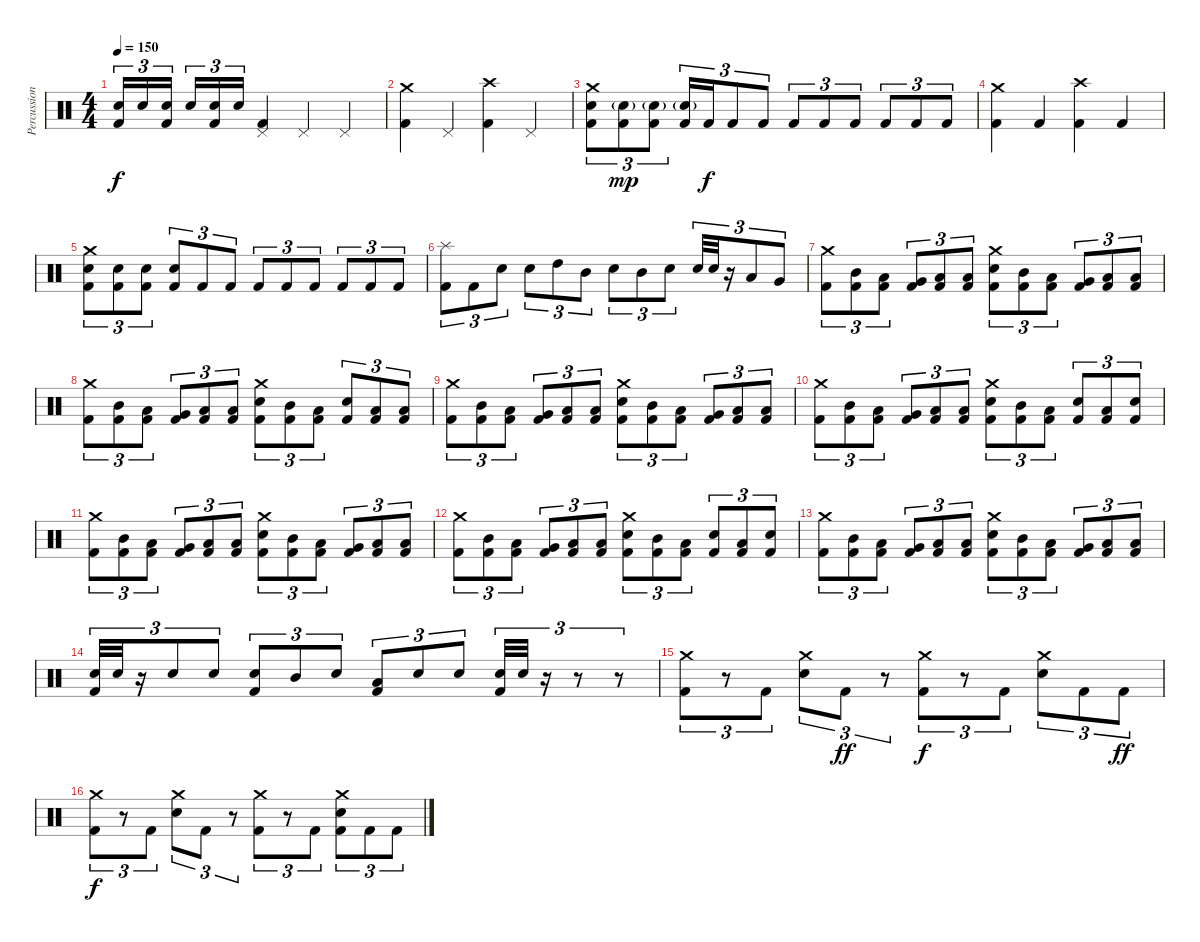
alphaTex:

\track ("Percussion" "Percussion") {instrument percussion}
\staff {score}
\articulation defaults
\ts (4 4)
\tempo 150
\clef neutral
\ks c
("Electric Snare (hit)" "Kick (hit) 2").16{tu (3 2) dy f} "Electric Snare (hit)".16{tu (3 2)} ("Electric Snare (hit)" "Kick (hit) 2").16{tu (3 2) beam splitsecondary} "Electric Snare (hit)".16{tu (3 2)} ("Electric Snare (hit)" "Kick (hit) 2").16{tu (3 2)} "Electric Snare (hit)".16{tu (3 2)} ("Pedal Hi-Hat (hit)" "Kick (hit) 2").4 "Pedal Hi-Hat (hit)".4 "Pedal Hi-Hat (hit)".4 |
("Crash medium (hit)" "Kick (hit) 2").4 "Pedal Hi-Hat (hit)".4 ("Crash high (hit)" "Kick (hit) 2").4 "Pedal Hi-Hat (hit)".4 |
("Crash medium (hit)" "Electric Snare (hit)" "Kick (hit) 2").8{tu (3 2)} ("Electric Snare (hit)"{g} "Kick (hit) 2").8{tu (3 2) dy mp} ("Electric Snare (hit)"{g} "Kick (hit) 2").8{tu (3 2)} ("Electric Snare (hit)"{g} "Kick (hit) 2").16{tu (3 2)} "Kick (hit) 2".16{tu (3 2) dy f} "Kick (hit) 2".8{tu (3 2)} "Kick (hit) 2".8{tu (3 2)} "Kick (hit) 2".8{tu (3 2)} "Kick (hit) 2".8{tu (3 2)} "Kick (hit) 2".8{tu (3 2)} "Kick (hit) 2".8{tu (3 2)} "Kick (hit) 2".8{tu (3 2)} "Kick (hit) 2".8{tu (3 2)} |
("Crash medium (hit)" "Kick (hit) 2").4 "Kick (hit) 2".4 ("Crash high (hit)" "Kick (hit) 2").4 "Kick (hit) 2".4 |
("Crash medium (hit)" "Electric Snare (hit)" "Kick (hit) 2").8{tu (3 2)} ("Electric Snare (hit)" "Kick (hit) 2").8{tu (3 2)} ("Electric Snare (hit)" "Kick (hit) 2").8{tu (3 2)} ("Electric Snare (hit)" "Kick (hit) 2").8{tu (3 2)} "Kick (hit) 2".8{tu (3 2)} "Kick (hit) 2".8{tu (3 2)} "Kick (hit) 2".8{tu (3 2)} "Kick (hit) 2".8{tu (3 2)} "Kick (hit) 2".8{tu (3 2)} "Kick (hit) 2".8{tu (3 2)} "Kick (hit) 2".8{tu (3 2)} "Kick (hit) 2".8{tu (3 2)} |
("Splash (hit)" "Kick (hit) 2").8{tu (3 2)} "Kick (hit) 2".8{tu (3 2)} "Electric Snare (hit)".8{tu (3 2)} "Electric Snare (hit)".8{tu (3 2)} "High Tom (hit)".8{tu (3 2)} "Mid Tom (hit)".8{tu (3 2)} "Electric Snare (hit)".8{tu (3 2)} "Mid Tom (hit)".8{tu (3 2)} "Electric Snare (hit)".8{tu (3 2)} "Electric Snare (hit)".32{tu (3 2)} "Electric Snare (hit)".32{tu (3 2)} r.16{tu (3 2)} "Low Tom (hit)".8{tu (3 2)} "Very Low Tom (hit)".8{tu (3 2)} |
("Crash medium (hit)" "Kick (hit) 2").8{tu (3 2)} ("Mid Tom (hit)" "Kick (hit) 2").8{tu (3 2)} ("Low Tom (hit)" "Kick (hit) 2").8{tu (3 2)} ("Very Low Tom (hit)" "Kick (hit) 2").8{tu (3 2)} ("Low Tom (hit)" "Kick (hit) 2").8{tu (3 2)} ("Low Tom (hit)" "Kick (hit) 2").8{tu (3 2)} ("Crash medium (hit)" "Electric Snare (hit)" "Kick (hit) 2").8{tu (3 2)} ("Mid Tom (hit)" "Kick (hit) 2").8{tu (3 2)} ("Low Tom (hit)" "Kick (hit) 2").8{tu (3 2)} ("Very Low Tom (hit)" "Kick (hit) 2").8{tu (3 2)} ("Low Tom (hit)" "Kick (hit) 2").8{tu (3 2)} ("Low Tom (hit)" "Kick (hit) 2").8{tu (3 2)} |
("Crash medium (hit)" "Kick (hit) 2").8{tu (3 2)} ("Mid Tom (hit)" "Kick (hit) 2").8{tu (3 2)} ("Low Tom (hit)" "Kick (hit) 2").8{tu (3 2)} ("Very Low Tom (hit)" "Kick (hit) 2").8{tu (3 2)} ("Low Tom (hit)" "Kick (hit) 2").8{tu (3 2)} ("Low Tom (hit)" "Kick (hit) 2").8{tu (3 2)} ("Crash medium (hit)" "Electric Snare (hit)" "Kick (hit) 2").8{tu (3 2)} ("Mid Tom (hit)" "Kick (hit) 2").8{tu (3 2)} ("Low Tom (hit)" "Kick (hit) 2").8{tu (3 2)} ("Electric Snare (hit)" "Kick (hit) 2").8{tu (3 2)} ("Low Tom (hit)" "Kick (hit) 2").8{tu (3 2)} ("Low Tom (hit)" "Kick (hit) 2").8{tu (3 2)} |
("Crash medium (hit)" "Kick (hit) 2").8{tu (3 2)} ("Mid Tom (hit)" "Kick (hit) 2").8{tu (3 2)} ("Low Tom (hit)" "Kick (hit) 2").8{tu (3 2)} ("Very Low Tom (hit)" "Kick (hit) 2").8{tu (3 2)} ("Low Tom (hit)" "Kick (hit) 2").8{tu (3 2)} ("Low Tom (hit)" "Kick (hit) 2").8{tu (3 2)} ("Crash medium (hit)" "Electric Snare (hit)" "Kick (hit) 2").8{tu (3 2)} ("Mid Tom (hit)" "Kick (hit) 2").8{tu (3 2)} ("Low Tom (hit)" "Kick (hit) 2").8{tu (3 2)} ("Very Low Tom (hit)" "Kick (hit) 2").8{tu (3 2)} ("Low Tom (hit)" "Kick (hit) 2").8{tu (3 2)} ("Low Tom (hit)" "Kick (hit) 2").8{tu (3 2)} |
("Crash medium (hit)" "Kick (hit) 2").8{tu (3 2)} ("Mid Tom (hit)" "Kick (hit) 2").8{tu (3 2)} ("Low Tom (hit)" "Kick (hit) 2").8{tu (3 2)} ("Very Low Tom (hit)" "Kick (hit) 2").8{tu (3 2)} ("Low Tom (hit)" "Kick (hit) 2").8{tu (3 2)} ("Low Tom (hit)" "Kick (hit) 2").8{tu (3 2)} ("Crash medium (hit)" "Electric Snare (hit)" "Kick (hit) 2").8{tu (3 2)} ("Mid Tom (hit)" "Kick (hit) 2").8{tu (3 2)} ("Low Tom (hit)" "Kick (hit) 2").8{tu (3 2)} ("Electric Snare (hit)" "Kick (hit) 2").8{tu (3 2)} ("Low Tom (hit)" "Kick (hit) 2").8{tu (3 2)} ("Electric Snare (hit)" "Kick (hit) 2").8{tu (3 2)} |
("Crash medium (hit)" "Kick (hit) 2").8{tu (3 2)} ("Mid Tom (hit)" "Kick (hit) 2").8{tu (3 2)} ("Low Tom (hit)" "Kick (hit) 2").8{tu (3 2)} ("Very Low Tom (hit)" "Kick (hit) 2").8{tu (3 2)} ("Low Tom (hit)" "Kick (hit) 2").8{tu (3 2)} ("Low Tom (hit)" "Kick (hit) 2").8{tu (3 2)} ("Crash medium (hit)" "Electric Snare (hit)" "Kick (hit) 2").8{tu (3 2)} ("Mid Tom (hit)" "Kick (hit) 2").8{tu (3 2)} ("Low Tom (hit)" "Kick (hit) 2").8{tu (3 2)} ("Very Low Tom (hit)" "Kick (hit) 2").8{tu (3 2)} ("Low Tom (hit)" "Kick (hit) 2").8{tu (3 2)} ("Low Tom (hit)" "Kick (hit) 2").8{tu (3 2)} |
("Crash medium (hit)" "Kick (hit) 2").8{tu (3 2)} ("Mid Tom (hit)" "Kick (hit) 2").8{tu (3 2)} ("Low Tom (hit)" "Kick (hit) 2").8{tu (3 2)} ("Very Low Tom (hit)" "Kick (hit) 2").8{tu (3 2)} ("Low Tom (hit)" "Kick (hit) 2").8{tu (3 2)} ("Low Tom (hit)" "Kick (hit) 2").8{tu (3 2)} ("Crash medium (hit)" "Electric Snare (hit)" "Kick (hit) 2").8{tu (3 2)} ("Mid Tom (hit)" "Kick (hit) 2").8{tu (3 2)} ("Low Tom (hit)" "Kick (hit) 2").8{tu (3 2)} ("Electric Snare (hit)" "Kick (hit) 2").8{tu (3 2)} ("Low Tom (hit)" "Kick (hit) 2").8{tu (3 2)} ("Electric Snare (hit)" "Kick (hit) 2").8{tu (3 2)} |
("Crash medium (hit)" "Kick (hit) 2").8{tu (3 2)} ("Mid Tom (hit)" "Kick (hit) 2").8{tu (3 2)} ("Low Tom (hit)" "Kick (hit) 2").8{tu (3 2)} ("Very Low Tom (hit)" "Kick (hit) 2").8{tu (3 2)} ("Low Tom (hit)" "Kick (hit) 2").8{tu (3 2)} ("Low Tom (hit)" "Kick (hit) 2").8{tu (3 2)} ("Crash medium (hit)" "Electric Snare (hit)" "Kick (hit) 2").8{tu (3 2)} ("Mid Tom (hit)" "Kick (hit) 2").8{tu (3 2)} ("Low Tom (hit)" "Kick (hit) 2").8{tu (3 2)} ("Very Low Tom (hit)" "Kick (hit) 2").8{tu (3 2)} ("Low Tom (hit)" "Kick (hit) 2").8{tu (3 2)} ("Low Tom (hit)" "Kick (hit) 2").8{tu (3 2)} |
("Electric Snare (hit)" "Kick (hit) 2").32{tu (3 2)} "Electric Snare (hit)".32{tu (3 2)} r.16{tu (3 2)} "Electric Snare (hit)".8{tu (3 2)} "Electric Snare (hit)".8{tu (3 2)} ("Electric Snare (hit)" "Kick (hit) 2").8{tu (3 2)} "Mid Tom (hit)".8{tu (3 2)} "Electric Snare (hit)".8{tu (3 2)} ("Low Tom (hit)" "Kick (hit) 2").8{tu (3 2)} "Electric Snare (hit)".8{tu (3 2)} "Electric Snare (hit)".8{tu (3 2)} ("Electric Snare (hit)" "Kick (hit) 2").32{tu (3 2)} "Electric Snare (hit)".32{tu (3 2)} r.16{tu (3 2)} r.8{tu (3 2)} r.8{tu (3 2)} |
("Crash medium (hit)" "Kick (hit) 2").8{tu (3 2)} r.8{tu (3 2)} "Kick (hit) 2".8{tu (3 2)} ("Crash medium (hit)" "Electric Snare (hit)").8{tu (3 2)} "Kick (hit) 2".8{tu (3 2) dy ff} r.8{tu (3 2)} ("Crash medium (hit)" "Kick (hit) 2").8{tu (3 2) dy f} r.8{tu (3 2)} "Kick (hit) 2".8{tu (3 2)} ("Crash medium (hit)" "Electric Snare (hit)").8{tu (3 2)} "Kick (hit) 2".8{tu (3 2)} "Kick (hit) 2".8{tu (3 2) dy ff} |
("Crash medium (hit)" "Kick (hit) 2").8{tu (3 2) dy f} r.8{tu (3 2)} "Kick (hit) 2".8{tu (3 2)} ("Crash medium (hit)" "Electric Snare (hit)").8{tu (3 2)} "Kick (hit) 2".8{tu (3 2)} r.8{tu (3 2)} ("Crash medium (hit)" "Kick (hit) 2").8{tu (3 2)} r.8{tu (3 2)} "Kick (hit) 2".8{tu (3 2)} ("Crash medium (hit)" "Electric Snare (hit)" "Kick (hit) 2").8{tu (3 2)} "Kick (hit) 2".8{tu (3 2)} "Kick (hit) 2".8{tu (3 2)}
